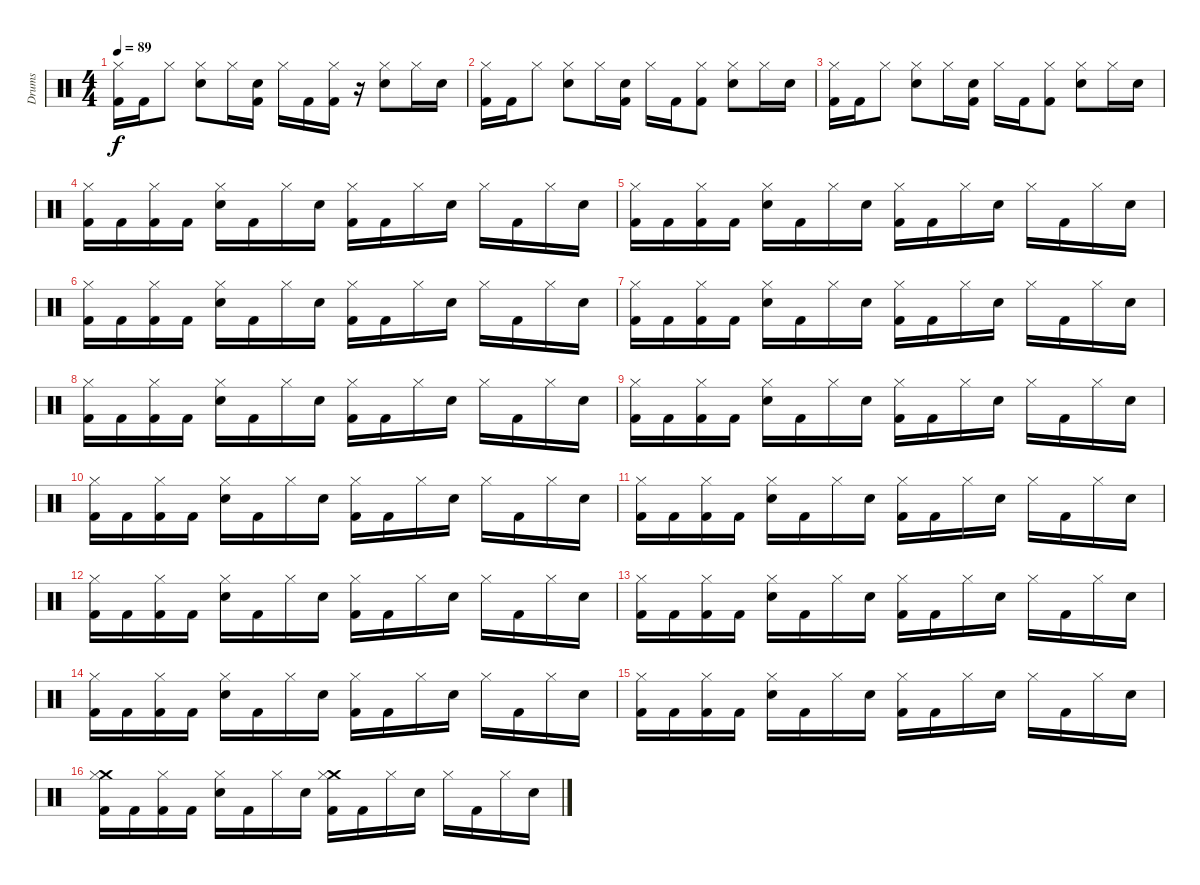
\track ("Drums" "Drums") {instrument percussion}
\staff {score}
\articulation defaults
\ts (4 4)
\tempo 89
\clef neutral
\ks c
("Hi-Hat (closed)" "Kick (hit) 2").16{dy f} "Kick (hit) 2".16 "Hi-Hat (closed)".8 ("Snare (hit) 2" "Hi-Hat (closed)").8 "Hi-Hat (closed)".16 ("Snare (hit) 2" "Kick (hit) 2").16 "Hi-Hat (closed)".16 "Kick (hit) 2".16 ("Hi-Hat (closed)" "Kick (hit) 2").16 r.16 ("Snare (hit) 2" "Hi-Hat (closed)").8 "Hi-Hat (closed)".16 "Snare (hit) 2".16 |
("Hi-Hat (closed)" "Kick (hit) 2").16 "Kick (hit) 2".16 "Hi-Hat (closed)".8 ("Snare (hit) 2" "Hi-Hat (closed)").8 "Hi-Hat (closed)".16 ("Snare (hit) 2" "Kick (hit) 2").16 "Hi-Hat (closed)".16 "Kick (hit) 2".16 ("Hi-Hat (closed)" "Kick (hit) 2").8 ("Snare (hit) 2" "Hi-Hat (closed)").8 "Hi-Hat (closed)".16 "Snare (hit) 2".16 |
("Hi-Hat (closed)" "Kick (hit) 2").16 "Kick (hit) 2".16 "Hi-Hat (closed)".8 ("Snare (hit) 2" "Hi-Hat (closed)").8 "Hi-Hat (closed)".16 ("Snare (hit) 2" "Kick (hit) 2").16 "Hi-Hat (closed)".16 "Kick (hit) 2".16 ("Hi-Hat (closed)" "Kick (hit) 2").8 ("Snare (hit) 2" "Hi-Hat (closed)").8 "Hi-Hat (closed)".16 "Snare (hit) 2".16 |
("Kick (hit) 2" "Hi-Hat (closed)").16 "Kick (hit) 2".16 ("Kick (hit) 2" "Hi-Hat (closed)").16 "Kick (hit) 2".16 ("Snare (hit) 2" "Hi-Hat (closed)").16 "Kick (hit) 2".16 "Hi-Hat (closed)".16 "Snare (hit) 2".16 ("Kick (hit) 2" "Hi-Hat (closed)").16 "Kick (hit) 2".16 "Hi-Hat (closed)".16 "Snare (hit) 2".16 "Hi-Hat (closed)".16 "Kick (hit) 2".16 "Hi-Hat (closed)".16 "Snare (hit) 2".16 |
("Kick (hit) 2" "Hi-Hat (closed)").16 "Kick (hit) 2".16 ("Kick (hit) 2" "Hi-Hat (closed)").16 "Kick (hit) 2".16 ("Snare (hit) 2" "Hi-Hat (closed)").16 "Kick (hit) 2".16 "Hi-Hat (closed)".16 "Snare (hit) 2".16 ("Kick (hit) 2" "Hi-Hat (closed)").16 "Kick (hit) 2".16 "Hi-Hat (closed)".16 "Snare (hit) 2".16 "Hi-Hat (closed)".16 "Kick (hit) 2".16 "Hi-Hat (closed)".16 "Snare (hit) 2".16 |
("Kick (hit) 2" "Hi-Hat (closed)").16 "Kick (hit) 2".16 ("Kick (hit) 2" "Hi-Hat (closed)").16 "Kick (hit) 2".16 ("Snare (hit) 2" "Hi-Hat (closed)").16 "Kick (hit) 2".16 "Hi-Hat (closed)".16 "Snare (hit) 2".16 ("Kick (hit) 2" "Hi-Hat (closed)").16 "Kick (hit) 2".16 "Hi-Hat (closed)".16 "Snare (hit) 2".16 "Hi-Hat (closed)".16 "Kick (hit) 2".16 "Hi-Hat (closed)".16 "Snare (hit) 2".16 |
("Kick (hit) 2" "Hi-Hat (closed)").16 "Kick (hit) 2".16 ("Kick (hit) 2" "Hi-Hat (closed)").16 "Kick (hit) 2".16 ("Snare (hit) 2" "Hi-Hat (closed)").16 "Kick (hit) 2".16 "Hi-Hat (closed)".16 "Snare (hit) 2".16 ("Kick (hit) 2" "Hi-Hat (closed)").16 "Kick (hit) 2".16 "Hi-Hat (closed)".16 "Snare (hit) 2".16 "Hi-Hat (closed)".16 "Kick (hit) 2".16 "Hi-Hat (closed)".16 "Snare (hit) 2".16 |
("Kick (hit) 2" "Hi-Hat (closed)").16 "Kick (hit) 2".16 ("Kick (hit) 2" "Hi-Hat (closed)").16 "Kick (hit) 2".16 ("Snare (hit) 2" "Hi-Hat (closed)").16 "Kick (hit) 2".16 "Hi-Hat (closed)".16 "Snare (hit) 2".16 ("Kick (hit) 2" "Hi-Hat (closed)").16 "Kick (hit) 2".16 "Hi-Hat (closed)".16 "Snare (hit) 2".16 "Hi-Hat (closed)".16 "Kick (hit) 2".16 "Hi-Hat (closed)".16 "Snare (hit) 2".16 |
("Kick (hit) 2" "Hi-Hat (closed)").16 "Kick (hit) 2".16 ("Kick (hit) 2" "Hi-Hat (closed)").16 "Kick (hit) 2".16 ("Snare (hit) 2" "Hi-Hat (closed)").16 "Kick (hit) 2".16 "Hi-Hat (closed)".16 "Snare (hit) 2".16 ("Kick (hit) 2" "Hi-Hat (closed)").16 "Kick (hit) 2".16 "Hi-Hat (closed)".16 "Snare (hit) 2".16 "Hi-Hat (closed)".16 "Kick (hit) 2".16 "Hi-Hat (closed)".16 "Snare (hit) 2".16 |
("Kick (hit) 2" "Hi-Hat (closed)").16 "Kick (hit) 2".16 ("Kick (hit) 2" "Hi-Hat (closed)").16 "Kick (hit) 2".16 ("Snare (hit) 2" "Hi-Hat (closed)").16 "Kick (hit) 2".16 "Hi-Hat (closed)".16 "Snare (hit) 2".16 ("Kick (hit) 2" "Hi-Hat (closed)").16 "Kick (hit) 2".16 "Hi-Hat (closed)".16 "Snare (hit) 2".16 "Hi-Hat (closed)".16 "Kick (hit) 2".16 "Hi-Hat (closed)".16 "Snare (hit) 2".16 |
("Kick (hit) 2" "Hi-Hat (closed)").16 "Kick (hit) 2".16 ("Kick (hit) 2" "Hi-Hat (closed)").16 "Kick (hit) 2".16 ("Snare (hit) 2" "Hi-Hat (closed)").16 "Kick (hit) 2".16 "Hi-Hat (closed)".16 "Snare (hit) 2".16 ("Kick (hit) 2" "Hi-Hat (closed)").16 "Kick (hit) 2".16 "Hi-Hat (closed)".16 "Snare (hit) 2".16 "Hi-Hat (closed)".16 "Kick (hit) 2".16 "Hi-Hat (closed)".16 "Snare (hit) 2".16 |
("Kick (hit) 2" "Hi-Hat (closed)").16 "Kick (hit) 2".16 ("Kick (hit) 2" "Hi-Hat (closed)").16 "Kick (hit) 2".16 ("Snare (hit) 2" "Hi-Hat (closed)").16 "Kick (hit) 2".16 "Hi-Hat (closed)".16 "Snare (hit) 2".16 ("Kick (hit) 2" "Hi-Hat (closed)").16 "Kick (hit) 2".16 "Hi-Hat (closed)".16 "Snare (hit) 2".16 "Hi-Hat (closed)".16 "Kick (hit) 2".16 "Hi-Hat (closed)".16 "Snare (hit) 2".16 |
("Kick (hit) 2" "Hi-Hat (closed)").16 "Kick (hit) 2".16 ("Kick (hit) 2" "Hi-Hat (closed)").16 "Kick (hit) 2".16 ("Snare (hit) 2" "Hi-Hat (closed)").16 "Kick (hit) 2".16 "Hi-Hat (closed)".16 "Snare (hit) 2".16 ("Kick (hit) 2" "Hi-Hat (closed)").16 "Kick (hit) 2".16 "Hi-Hat (closed)".16 "Snare (hit) 2".16 "Hi-Hat (closed)".16 "Kick (hit) 2".16 "Hi-Hat (closed)".16 "Snare (hit) 2".16 |
("Kick (hit) 2" "Hi-Hat (closed)").16 "Kick (hit) 2".16 ("Kick (hit) 2" "Hi-Hat (closed)").16 "Kick (hit) 2".16 ("Snare (hit) 2" "Hi-Hat (closed)").16 "Kick (hit) 2".16 "Hi-Hat (closed)".16 "Snare (hit) 2".16 ("Kick (hit) 2" "Hi-Hat (closed)").16 "Kick (hit) 2".16 "Hi-Hat (closed)".16 "Snare (hit) 2".16 "Hi-Hat (closed)".16 "Kick (hit) 2".16 "Hi-Hat (closed)".16 "Snare (hit) 2".16 |
("Kick (hit) 2" "Hi-Hat (closed)").16 "Kick (hit) 2".16 ("Kick (hit) 2" "Hi-Hat (closed)").16 "Kick (hit) 2".16 ("Snare (hit) 2" "Hi-Hat (closed)").16 "Kick (hit) 2".16 "Hi-Hat (closed)".16 "Snare (hit) 2".16 ("Kick (hit) 2" "Hi-Hat (closed)").16 "Kick (hit) 2".16 "Hi-Hat (closed)".16 "Snare (hit) 2".16 "Hi-Hat (closed)".16 "Kick (hit) 2".16 "Hi-Hat (closed)".16 "Snare (hit) 2".16 |
("Kick (hit) 2" "Crash medium (hit)" "Hi-Hat (closed)").16 "Kick (hit) 2".16 ("Kick (hit) 2" "Hi-Hat (closed)").16 "Kick (hit) 2".16 ("Snare (hit) 2" "Hi-Hat (closed)").16 "Kick (hit) 2".16 "Hi-Hat (closed)".16 "Snare (hit) 2".16 ("Kick (hit) 2" "Crash medium (hit)" "Hi-Hat (closed)").16 "Kick (hit) 2".16 "Hi-Hat (closed)".16 "Snare (hit) 2".16 "Hi-Hat (closed)".16 "Kick (hit) 2".16 "Hi-Hat (closed)".16 "Snare (hit) 2".16
